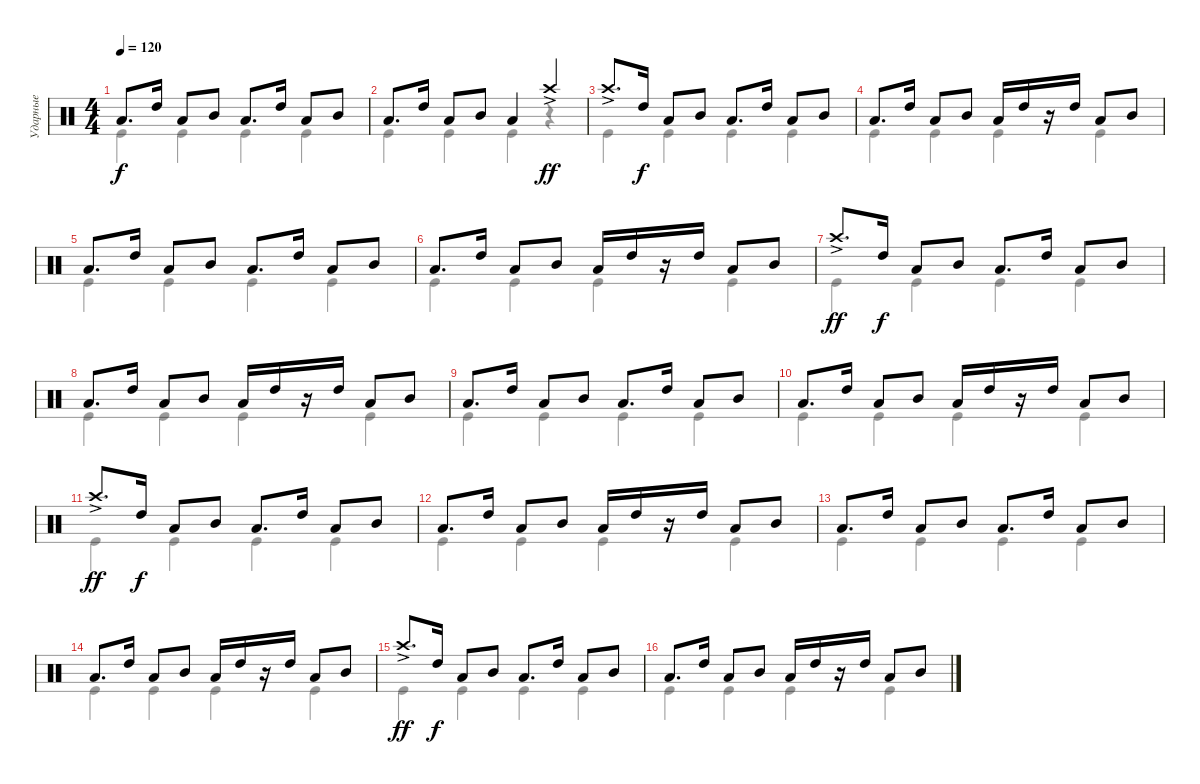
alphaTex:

\track ("Ударные" "Ударные") {instrument percussion}
\staff {score}
\articulation defaults
\voice
\ts (4 4)
\tempo 120
\clef neutral
\ks c "Low Tom (hit)".8{d dy f} "High Tom (hit)".16 "Low Tom (hit)".8 "Mid Tom (hit)".8 "Low Tom (hit)".8{d} "High Tom (hit)".16 "Low Tom (hit)".8 "Mid Tom (hit)".8
|
"Low Tom (hit)".8{d} "High Tom (hit)".16 "Low Tom (hit)".8 "Mid Tom (hit)".8 "Low Tom (hit)".4 "Crash high (hit)"{ac}.4{dy ff} |
"Crash high (hit)"{ac}.8{d} "High Tom (hit)".16{dy f} "Low Tom (hit)".8 "Mid Tom (hit)".8 "Low Tom (hit)".8{d} "High Tom (hit)".16 "Low Tom (hit)".8 "Mid Tom (hit)".8 |
"Low Tom (hit)".8{d} "High Tom (hit)".16 "Low Tom (hit)".8 "Mid Tom (hit)".8 "Low Tom (hit)".16 "High Tom (hit)".16 r.16 "High Tom (hit)".16 "Low Tom (hit)".8 "Mid Tom (hit)".8 |
"Low Tom (hit)".8{d} "High Tom (hit)".16 "Low Tom (hit)".8 "Mid Tom (hit)".8 "Low Tom (hit)".8{d} "High Tom (hit)".16 "Low Tom (hit)".8 "Mid Tom (hit)".8 |
"Low Tom (hit)".8{d} "High Tom (hit)".16 "Low Tom (hit)".8 "Mid Tom (hit)".8 "Low Tom (hit)".16 "High Tom (hit)".16 r.16 "High Tom (hit)".16 "Low Tom (hit)".8 "Mid Tom (hit)".8 |
"Crash high (hit)"{ac}.8{d dy ff} "High Tom (hit)".16{dy f} "Low Tom (hit)".8 "Mid Tom (hit)".8 "Low Tom (hit)".8{d} "High Tom (hit)".16 "Low Tom (hit)".8 "Mid Tom (hit)".8 |
"Low Tom (hit)".8{d} "High Tom (hit)".16 "Low Tom (hit)".8 "Mid Tom (hit)".8 "Low Tom (hit)".16 "High Tom (hit)".16 r.16 "High Tom (hit)".16 "Low Tom (hit)".8 "Mid Tom (hit)".8 |
"Low Tom (hit)".8{d} "High Tom (hit)".16 "Low Tom (hit)".8 "Mid Tom (hit)".8 "Low Tom (hit)".8{d} "High Tom (hit)".16 "Low Tom (hit)".8 "Mid Tom (hit)".8 |
"Low Tom (hit)".8{d} "High Tom (hit)".16 "Low Tom (hit)".8 "Mid Tom (hit)".8 "Low Tom (hit)".16 "High Tom (hit)".16 r.16 "High Tom (hit)".16 "Low Tom (hit)".8 "Mid Tom (hit)".8 |
"Crash high (hit)"{ac}.8{d dy ff} "High Tom (hit)".16{dy f} "Low Tom (hit)".8 "Mid Tom (hit)".8 "Low Tom (hit)".8{d} "High Tom (hit)".16 "Low Tom (hit)".8 "Mid Tom (hit)".8 |
"Low Tom (hit)".8{d} "High Tom (hit)".16 "Low Tom (hit)".8 "Mid Tom (hit)".8 "Low Tom (hit)".16 "High Tom (hit)".16 r.16 "High Tom (hit)".16 "Low Tom (hit)".8 "Mid Tom (hit)".8 |
"Low Tom (hit)".8{d} "High Tom (hit)".16 "Low Tom (hit)".8 "Mid Tom (hit)".8 "Low Tom (hit)".8{d} "High Tom (hit)".16 "Low Tom (hit)".8 "Mid Tom (hit)".8 |
"Low Tom (hit)".8{d} "High Tom (hit)".16 "Low Tom (hit)".8 "Mid Tom (hit)".8 "Low Tom (hit)".16 "High Tom (hit)".16 r.16 "High Tom (hit)".16 "Low Tom (hit)".8 "Mid Tom (hit)".8 |
"Crash high (hit)"{ac}.8{d dy ff} "High Tom (hit)".16{dy f} "Low Tom (hit)".8 "Mid Tom (hit)".8 "Low Tom (hit)".8{d} "High Tom (hit)".16 "Low Tom (hit)".8 "Mid Tom (hit)".8 |
"Low Tom (hit)".8{d} "High Tom (hit)".16 "Low Tom (hit)".8 "Mid Tom (hit)".8 "Low Tom (hit)".16 "High Tom (hit)".16 r.16 "High Tom (hit)".16 "Low Tom (hit)".8 "Mid Tom (hit)".8
\voice
\clef neutral
\ottava regular
\simile none
\ks c "Kick (hit)".4{dy f} "Kick (hit)".4 "Kick (hit)".4 "Kick (hit)".4
|
"Kick (hit)".4 "Kick (hit)".4 "Kick (hit)".4 r.4 |
"Kick (hit)".4 "Kick (hit)".4 "Kick (hit)".4 "Kick (hit)".4 |
"Kick (hit)".4 "Kick (hit)".4 "Kick (hit)".4 "Kick (hit)".4 |
"Kick (hit)".4 "Kick (hit)".4 "Kick (hit)".4 "Kick (hit)".4 |
"Kick (hit)".4 "Kick (hit)".4 "Kick (hit)".4 "Kick (hit)".4 |
"Kick (hit)".4 "Kick (hit)".4 "Kick (hit)".4 "Kick (hit)".4 |
"Kick (hit)".4 "Kick (hit)".4 "Kick (hit)".4 "Kick (hit)".4 |
"Kick (hit)".4 "Kick (hit)".4 "Kick (hit)".4 "Kick (hit)".4 |
"Kick (hit)".4 "Kick (hit)".4 "Kick (hit)".4 "Kick (hit)".4 |
"Kick (hit)".4 "Kick (hit)".4 "Kick (hit)".4 "Kick (hit)".4 |
"Kick (hit)".4 "Kick (hit)".4 "Kick (hit)".4 "Kick (hit)".4 |
"Kick (hit)".4 "Kick (hit)".4 "Kick (hit)".4 "Kick (hit)".4 |
"Kick (hit)".4 "Kick (hit)".4 "Kick (hit)".4 "Kick (hit)".4 |
"Kick (hit)".4 "Kick (hit)".4 "Kick (hit)".4 "Kick (hit)".4 |
"Kick (hit)".4 "Kick (hit)".4 "Kick (hit)".4 "Kick (hit)".4
